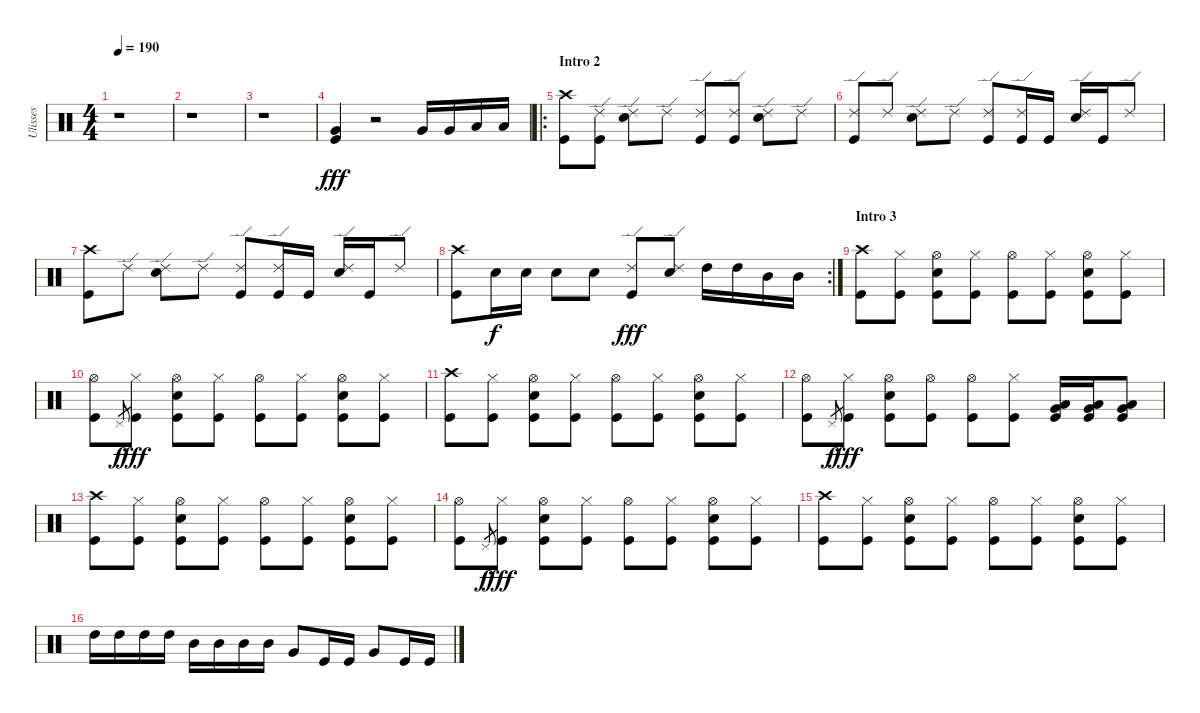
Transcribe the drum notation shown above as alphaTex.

\track ("Ulisses" "Ulisses") {instrument percussion}
\staff {score}
\articulation defaults
\ts (4 4)
\tempo 190
\clef neutral
\ks c
r.1{dy fff} |
r.1 |
r.1 |
("Very Low Tom (hit)" "Kick (hit)").4 r.2 "Very Low Tom (hit)".16 "Very Low Tom (hit)".16 "Low Floor Tom (hit)".16 "Low Floor Tom (hit)".16 |
\ro
\section ("" "Intro 2")
("Crash high (hit)" "Kick (hit)").8 ("Ride (edge) 2" "Kick (hit)").8 ("Ride (edge) 2" "Electric Snare (hit)").8 "Ride (edge) 2".8 ("Ride (edge) 2" "Kick (hit)").8 ("Ride (edge) 2" "Kick (hit)").8 ("Ride (edge) 2" "Electric Snare (hit)").8 "Ride (edge) 2".8 |
("Ride (edge) 2" "Kick (hit)").8 "Ride (edge) 2".8 ("Ride (edge) 2" "Electric Snare (hit)").8 "Ride (edge) 2".8 ("Ride (edge) 2" "Kick (hit)").8 ("Ride (edge) 2" "Kick (hit)").16 "Kick (hit)".16 ("Ride (edge) 2" "Electric Snare (hit)").16 "Kick (hit)".16 "Ride (edge) 2".8 |
("Crash high (hit)" "Kick (hit)").8 "Ride (edge) 2".8 ("Ride (edge) 2" "Electric Snare (hit)").8 "Ride (edge) 2".8 ("Ride (edge) 2" "Kick (hit)").8 ("Ride (edge) 2" "Kick (hit)").16 "Kick (hit)".16 ("Ride (edge) 2" "Electric Snare (hit)").16 "Kick (hit)".16 "Ride (edge) 2".8 |
\rc 2
("Crash high (hit)" "Kick (hit)").8 "Electric Snare (hit)".16{dy f} "Electric Snare (hit)".16 "Electric Snare (hit)".8 "Electric Snare (hit)".8 ("Ride (edge) 2" "Kick (hit)").8{dy fff} ("Ride (edge) 2" "Electric Snare (hit)").8 "High Tom (hit)".16 "High Tom (hit)".16 "Mid Tom (hit)".16 "Mid Tom (hit)".16 |
\section ("" "Intro 3")
("Crash high (hit)" "Kick (hit)").8 ("Hi-Hat (closed)" "Kick (hit)").8 ("Hi-Hat (open)" "Electric Snare (hit)" "Kick (hit)").8 ("Hi-Hat (closed)" "Kick (hit)").8 ("Hi-Hat (open)" "Kick (hit)").8 ("Hi-Hat (closed)" "Kick (hit)").8 ("Hi-Hat (open)" "Electric Snare (hit)" "Kick (hit)").8 ("Hi-Hat (closed)" "Kick (hit)").8 |
("Hi-Hat (open)" "Kick (hit)").8 "Pedal Hi-Hat (hit)".8{gr dy f} ("Hi-Hat (closed)" "Kick (hit)").8{dy fff} ("Hi-Hat (open)" "Electric Snare (hit)" "Kick (hit)").8 ("Hi-Hat (closed)" "Kick (hit)").8 ("Hi-Hat (open)" "Kick (hit)").8 ("Hi-Hat (closed)" "Kick (hit)").8 ("Hi-Hat (open)" "Electric Snare (hit)" "Kick (hit)").8 ("Hi-Hat (closed)" "Kick (hit)").8 |
("Crash high (hit)" "Kick (hit)").8 ("Hi-Hat (closed)" "Kick (hit)").8 ("Hi-Hat (open)" "Electric Snare (hit)" "Kick (hit)").8 ("Hi-Hat (closed)" "Kick (hit)").8 ("Hi-Hat (open)" "Kick (hit)").8 ("Hi-Hat (closed)" "Kick (hit)").8 ("Hi-Hat (open)" "Electric Snare (hit)" "Kick (hit)").8 ("Hi-Hat (closed)" "Kick (hit)").8 |
("Hi-Hat (open)" "Kick (hit)").8 "Pedal Hi-Hat (hit)".8{gr dy f} ("Hi-Hat (closed)" "Kick (hit)").8{dy fff} ("Hi-Hat (open)" "Electric Snare (hit)" "Kick (hit)").8 ("Hi-Hat (open)" "Kick (hit)").8 ("Hi-Hat (open)" "Kick (hit)").8 ("Hi-Hat (closed)" "Kick (hit)").8 ("Very Low Tom (hit)" "Low Floor Tom (hit)" "Kick (hit)").16 ("Very Low Tom (hit)" "Low Floor Tom (hit)" "Kick (hit)").16 ("Very Low Tom (hit)" "Low Floor Tom (hit)" "Kick (hit)").8 |
("Crash high (hit)" "Kick (hit)").8 ("Hi-Hat (closed)" "Kick (hit)").8 ("Hi-Hat (open)" "Electric Snare (hit)" "Kick (hit)").8 ("Hi-Hat (closed)" "Kick (hit)").8 ("Hi-Hat (open)" "Kick (hit)").8 ("Hi-Hat (closed)" "Kick (hit)").8 ("Hi-Hat (open)" "Electric Snare (hit)" "Kick (hit)").8 ("Hi-Hat (closed)" "Kick (hit)").8 |
("Hi-Hat (open)" "Kick (hit)").8 "Pedal Hi-Hat (hit)".8{gr dy f} ("Hi-Hat (closed)" "Kick (hit)").8{dy fff} ("Hi-Hat (open)" "Electric Snare (hit)" "Kick (hit)").8 ("Hi-Hat (closed)" "Kick (hit)").8 ("Hi-Hat (open)" "Kick (hit)").8 ("Hi-Hat (closed)" "Kick (hit)").8 ("Hi-Hat (open)" "Electric Snare (hit)" "Kick (hit)").8 ("Hi-Hat (closed)" "Kick (hit)").8 |
("Crash high (hit)" "Kick (hit)").8 ("Hi-Hat (closed)" "Kick (hit)").8 ("Hi-Hat (open)" "Electric Snare (hit)" "Kick (hit)").8 ("Hi-Hat (closed)" "Kick (hit)").8 ("Hi-Hat (open)" "Kick (hit)").8 ("Hi-Hat (closed)" "Kick (hit)").8 ("Hi-Hat (open)" "Electric Snare (hit)" "Kick (hit)").8 ("Hi-Hat (closed)" "Kick (hit)").8 |
"High Tom (hit)".16 "High Tom (hit)".16 "High Tom (hit)".16 "High Tom (hit)".16 "Mid Tom (hit)".16 "Mid Tom (hit)".16 "Mid Tom (hit)".16 "Mid Tom (hit)".16 "Very Low Tom (hit)".8 "Kick (hit)".16 "Kick (hit)".16 "Very Low Tom (hit)".8 "Kick (hit)".16 "Kick (hit)".16
